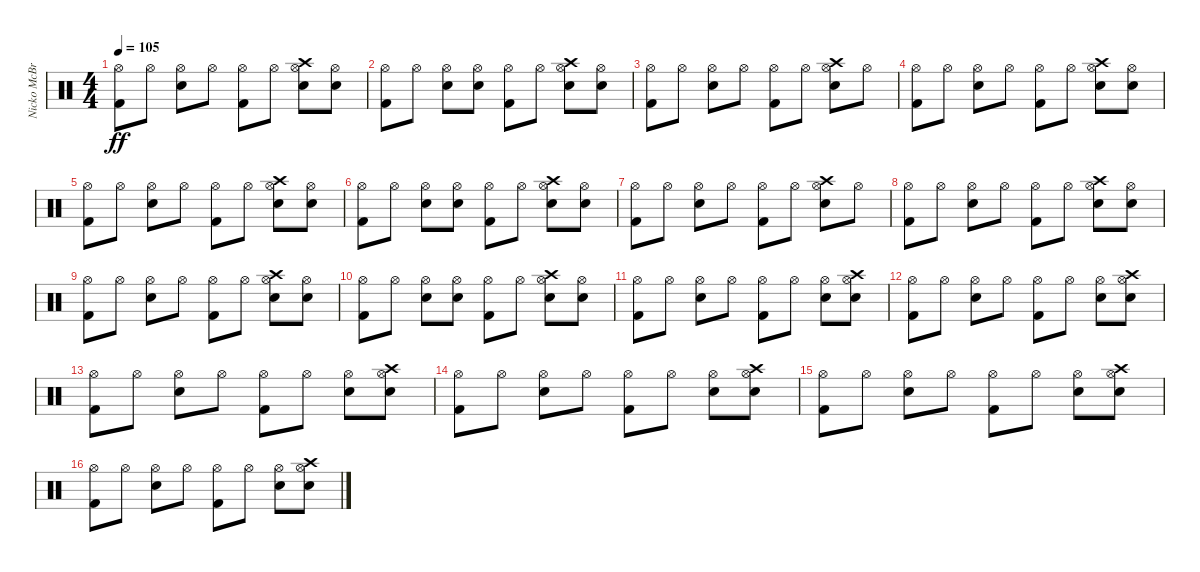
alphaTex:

\track ("Nicko McBrain" "Nicko McBr") {instrument percussion}
\staff {score}
\articulation defaults
\ts (4 4)
\tempo 105
\clef neutral
\ks c
("Kick (hit) 2" "Hi-Hat (open)").8{dy ff} "Hi-Hat (open)".8 ("Snare (hit) 2" "Hi-Hat (open)").8 "Hi-Hat (open)".8 ("Kick (hit) 2" "Hi-Hat (open)").8 "Hi-Hat (open)".8 ("Snare (hit) 2" "Hi-Hat (open)" "Crash high (hit)").8 ("Snare (hit) 2" "Hi-Hat (open)").8 |
("Kick (hit) 2" "Hi-Hat (open)").8 "Hi-Hat (open)".8 ("Snare (hit) 2" "Hi-Hat (open)").8 ("Snare (hit) 2" "Hi-Hat (open)").8 ("Kick (hit) 2" "Hi-Hat (open)").8 "Hi-Hat (open)".8 ("Snare (hit) 2" "Hi-Hat (open)" "Crash high (hit)").8 ("Snare (hit) 2" "Hi-Hat (open)").8 |
("Kick (hit) 2" "Hi-Hat (open)").8 "Hi-Hat (open)".8 ("Snare (hit) 2" "Hi-Hat (open)").8 "Hi-Hat (open)".8 ("Kick (hit) 2" "Hi-Hat (open)").8 "Hi-Hat (open)".8 ("Snare (hit) 2" "Hi-Hat (open)" "Crash high (hit)").8 "Hi-Hat (open)".8 |
("Kick (hit) 2" "Hi-Hat (open)").8 "Hi-Hat (open)".8 ("Snare (hit) 2" "Hi-Hat (open)").8 "Hi-Hat (open)".8 ("Kick (hit) 2" "Hi-Hat (open)").8 "Hi-Hat (open)".8 ("Snare (hit) 2" "Hi-Hat (open)" "Crash high (hit)").8 ("Snare (hit) 2" "Hi-Hat (open)").8 |
("Kick (hit) 2" "Hi-Hat (open)").8 "Hi-Hat (open)".8 ("Snare (hit) 2" "Hi-Hat (open)").8 "Hi-Hat (open)".8 ("Kick (hit) 2" "Hi-Hat (open)").8 "Hi-Hat (open)".8 ("Snare (hit) 2" "Hi-Hat (open)" "Crash high (hit)").8 ("Snare (hit) 2" "Hi-Hat (open)").8 |
("Kick (hit) 2" "Hi-Hat (open)").8 "Hi-Hat (open)".8 ("Snare (hit) 2" "Hi-Hat (open)").8 ("Snare (hit) 2" "Hi-Hat (open)").8 ("Kick (hit) 2" "Hi-Hat (open)").8 "Hi-Hat (open)".8 ("Snare (hit) 2" "Hi-Hat (open)" "Crash high (hit)").8 ("Snare (hit) 2" "Hi-Hat (open)").8 |
("Kick (hit) 2" "Hi-Hat (open)").8 "Hi-Hat (open)".8 ("Snare (hit) 2" "Hi-Hat (open)").8 "Hi-Hat (open)".8 ("Kick (hit) 2" "Hi-Hat (open)").8 "Hi-Hat (open)".8 ("Snare (hit) 2" "Hi-Hat (open)" "Crash high (hit)").8 "Hi-Hat (open)".8 |
("Kick (hit) 2" "Hi-Hat (open)").8 "Hi-Hat (open)".8 ("Snare (hit) 2" "Hi-Hat (open)").8 "Hi-Hat (open)".8 ("Kick (hit) 2" "Hi-Hat (open)").8 "Hi-Hat (open)".8 ("Snare (hit) 2" "Hi-Hat (open)" "Crash high (hit)").8 ("Snare (hit) 2" "Hi-Hat (open)").8 |
("Kick (hit) 2" "Hi-Hat (open)").8 "Hi-Hat (open)".8 ("Snare (hit) 2" "Hi-Hat (open)").8 "Hi-Hat (open)".8 ("Kick (hit) 2" "Hi-Hat (open)").8 "Hi-Hat (open)".8 ("Snare (hit) 2" "Hi-Hat (open)" "Crash high (hit)").8 ("Snare (hit) 2" "Hi-Hat (open)").8 |
("Kick (hit) 2" "Hi-Hat (open)").8 "Hi-Hat (open)".8 ("Snare (hit) 2" "Hi-Hat (open)").8 ("Snare (hit) 2" "Hi-Hat (open)").8 ("Kick (hit) 2" "Hi-Hat (open)").8 "Hi-Hat (open)".8 ("Snare (hit) 2" "Hi-Hat (open)" "Crash high (hit)").8 ("Snare (hit) 2" "Hi-Hat (open)").8 |
("Kick (hit) 2" "Hi-Hat (open)").8 "Hi-Hat (open)".8 ("Snare (hit) 2" "Hi-Hat (open)").8 "Hi-Hat (open)".8 ("Kick (hit) 2" "Hi-Hat (open)").8 "Hi-Hat (open)".8 ("Snare (hit) 2" "Hi-Hat (open)").8 ("Snare (hit) 2" "Hi-Hat (open)" "Crash high (hit)").8 |
("Kick (hit) 2" "Hi-Hat (open)").8 "Hi-Hat (open)".8 ("Snare (hit) 2" "Hi-Hat (open)").8 "Hi-Hat (open)".8 ("Kick (hit) 2" "Hi-Hat (open)").8 "Hi-Hat (open)".8 ("Snare (hit) 2" "Hi-Hat (open)").8 ("Snare (hit) 2" "Hi-Hat (open)" "Crash high (hit)").8 |
("Kick (hit) 2" "Hi-Hat (open)").8 "Hi-Hat (open)".8 ("Snare (hit) 2" "Hi-Hat (open)").8 "Hi-Hat (open)".8 ("Kick (hit) 2" "Hi-Hat (open)").8 "Hi-Hat (open)".8 ("Snare (hit) 2" "Hi-Hat (open)").8 ("Snare (hit) 2" "Hi-Hat (open)" "Crash high (hit)").8 |
("Kick (hit) 2" "Hi-Hat (open)").8 "Hi-Hat (open)".8 ("Snare (hit) 2" "Hi-Hat (open)").8 "Hi-Hat (open)".8 ("Kick (hit) 2" "Hi-Hat (open)").8 "Hi-Hat (open)".8 ("Snare (hit) 2" "Hi-Hat (open)").8 ("Snare (hit) 2" "Hi-Hat (open)" "Crash high (hit)").8 |
("Kick (hit) 2" "Hi-Hat (open)").8 "Hi-Hat (open)".8 ("Snare (hit) 2" "Hi-Hat (open)").8 "Hi-Hat (open)".8 ("Kick (hit) 2" "Hi-Hat (open)").8 "Hi-Hat (open)".8 ("Snare (hit) 2" "Hi-Hat (open)").8 ("Snare (hit) 2" "Hi-Hat (open)" "Crash high (hit)").8 |
("Kick (hit) 2" "Hi-Hat (open)").8 "Hi-Hat (open)".8 ("Snare (hit) 2" "Hi-Hat (open)").8 "Hi-Hat (open)".8 ("Kick (hit) 2" "Hi-Hat (open)").8 "Hi-Hat (open)".8 ("Snare (hit) 2" "Hi-Hat (open)").8 ("Snare (hit) 2" "Hi-Hat (open)" "Crash high (hit)").8
